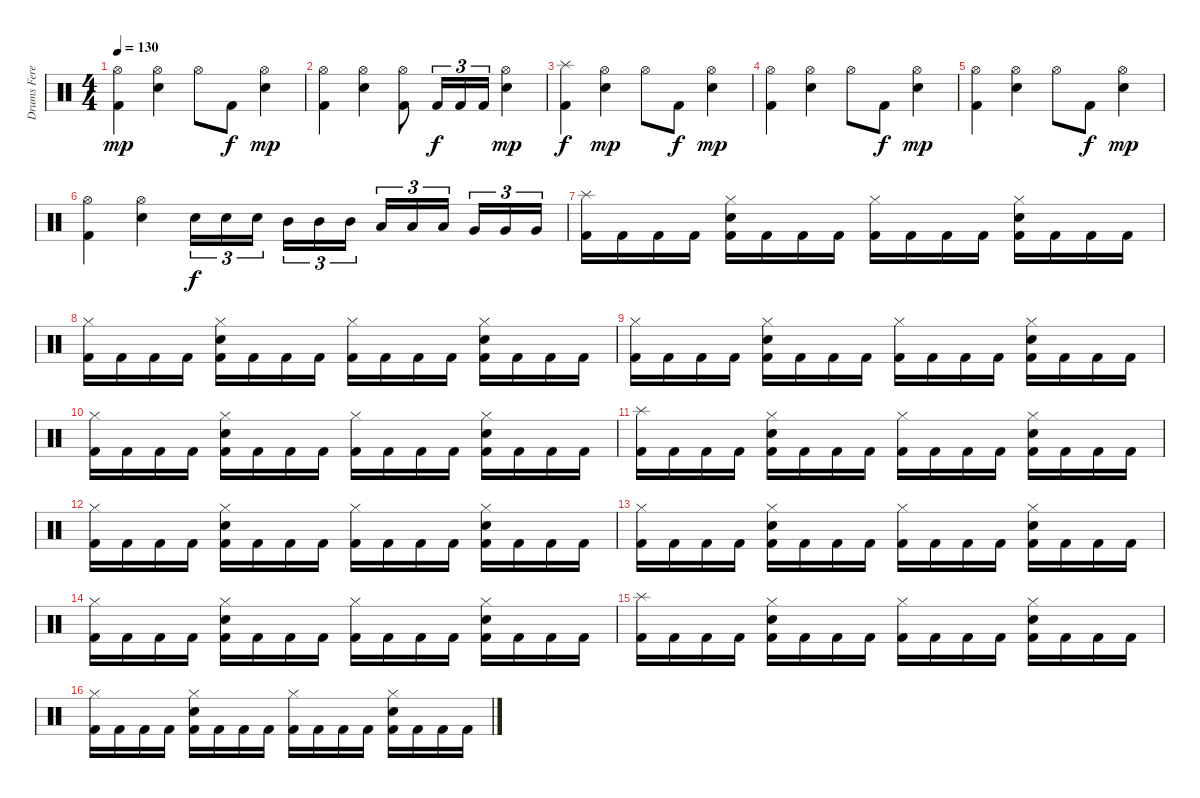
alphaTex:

\track ("Drums Feret" "Drums Fere") {instrument percussion}
\staff {score}
\articulation defaults
\ts (4 4)
\tempo 130
\clef neutral
\ks c
("Kick (hit) 2" "Hi-Hat (open)").4{dy mp} ("Electric Snare (hit)" "Hi-Hat (open)").4 "Hi-Hat (open)".8 "Kick (hit) 2".8{dy f} ("Electric Snare (hit)" "Hi-Hat (open)").4{dy mp} |
("Kick (hit) 2" "Hi-Hat (open)").4 ("Electric Snare (hit)" "Hi-Hat (open)").4 ("Kick (hit) 2" "Hi-Hat (open)").8 "Kick (hit) 2".16{tu (3 2) dy f} "Kick (hit) 2".16{tu (3 2)} "Kick (hit) 2".16{tu (3 2)} ("Electric Snare (hit)" "Hi-Hat (open)").4{dy mp} |
("Kick (hit) 2" "Splash (hit)").4{dy f} ("Electric Snare (hit)" "Hi-Hat (open)").4{dy mp} "Hi-Hat (open)".8 "Kick (hit) 2".8{dy f} ("Electric Snare (hit)" "Hi-Hat (open)").4{dy mp} |
("Kick (hit) 2" "Hi-Hat (open)").4 ("Electric Snare (hit)" "Hi-Hat (open)").4 "Hi-Hat (open)".8 "Kick (hit) 2".8{dy f} ("Electric Snare (hit)" "Hi-Hat (open)").4{dy mp} |
("Kick (hit) 2" "Hi-Hat (open)").4 ("Electric Snare (hit)" "Hi-Hat (open)").4 "Hi-Hat (open)".8 "Kick (hit) 2".8{dy f} ("Electric Snare (hit)" "Hi-Hat (open)").4{dy mp} |
("Kick (hit) 2" "Hi-Hat (open)").4 ("Electric Snare (hit)" "Hi-Hat (open)").4 "Electric Snare (hit)".16{tu (3 2) dy f} "Electric Snare (hit)".16{tu (3 2)} "Electric Snare (hit)".16{tu (3 2)} "Mid Tom (hit)".16{tu (3 2)} "Mid Tom (hit)".16{tu (3 2)} "Mid Tom (hit)".16{tu (3 2)} "Low Tom (hit)".16{tu (3 2)} "Low Tom (hit)".16{tu (3 2)} "Low Tom (hit)".16{tu (3 2)} "Very Low Tom (hit)".16{tu (3 2)} "Very Low Tom (hit)".16{tu (3 2)} "Very Low Tom (hit)".16{tu (3 2)} |
("Kick (hit) 2" "Splash (hit)").16 "Kick (hit) 2".16 "Kick (hit) 2".16 "Kick (hit) 2".16 ("Kick (hit) 2" "Electric Snare (hit)" "Hi-Hat (closed)").16 "Kick (hit) 2".16 "Kick (hit) 2".16 "Kick (hit) 2".16 ("Kick (hit) 2" "Hi-Hat (closed)").16 "Kick (hit) 2".16 "Kick (hit) 2".16 "Kick (hit) 2".16 ("Kick (hit) 2" "Electric Snare (hit)" "Hi-Hat (closed)").16 "Kick (hit) 2".16 "Kick (hit) 2".16 "Kick (hit) 2".16 |
("Kick (hit) 2" "Hi-Hat (closed)").16 "Kick (hit) 2".16 "Kick (hit) 2".16 "Kick (hit) 2".16 ("Kick (hit) 2" "Electric Snare (hit)" "Hi-Hat (closed)").16 "Kick (hit) 2".16 "Kick (hit) 2".16 "Kick (hit) 2".16 ("Kick (hit) 2" "Hi-Hat (closed)").16 "Kick (hit) 2".16 "Kick (hit) 2".16 "Kick (hit) 2".16 ("Kick (hit) 2" "Electric Snare (hit)" "Hi-Hat (closed)").16 "Kick (hit) 2".16 "Kick (hit) 2".16 "Kick (hit) 2".16 |
("Kick (hit) 2" "Hi-Hat (closed)").16 "Kick (hit) 2".16 "Kick (hit) 2".16 "Kick (hit) 2".16 ("Kick (hit) 2" "Electric Snare (hit)" "Hi-Hat (closed)").16 "Kick (hit) 2".16 "Kick (hit) 2".16 "Kick (hit) 2".16 ("Kick (hit) 2" "Hi-Hat (closed)").16 "Kick (hit) 2".16 "Kick (hit) 2".16 "Kick (hit) 2".16 ("Kick (hit) 2" "Electric Snare (hit)" "Hi-Hat (closed)").16 "Kick (hit) 2".16 "Kick (hit) 2".16 "Kick (hit) 2".16 |
("Kick (hit) 2" "Hi-Hat (closed)").16 "Kick (hit) 2".16 "Kick (hit) 2".16 "Kick (hit) 2".16 ("Kick (hit) 2" "Electric Snare (hit)" "Hi-Hat (closed)").16 "Kick (hit) 2".16 "Kick (hit) 2".16 "Kick (hit) 2".16 ("Kick (hit) 2" "Hi-Hat (closed)").16 "Kick (hit) 2".16 "Kick (hit) 2".16 "Kick (hit) 2".16 ("Kick (hit) 2" "Electric Snare (hit)" "Hi-Hat (closed)").16 "Kick (hit) 2".16 "Kick (hit) 2".16 "Kick (hit) 2".16 |
("Kick (hit) 2" "Splash (hit)").16 "Kick (hit) 2".16 "Kick (hit) 2".16 "Kick (hit) 2".16 ("Kick (hit) 2" "Electric Snare (hit)" "Hi-Hat (closed)").16 "Kick (hit) 2".16 "Kick (hit) 2".16 "Kick (hit) 2".16 ("Kick (hit) 2" "Hi-Hat (closed)").16 "Kick (hit) 2".16 "Kick (hit) 2".16 "Kick (hit) 2".16 ("Kick (hit) 2" "Electric Snare (hit)" "Hi-Hat (closed)").16 "Kick (hit) 2".16 "Kick (hit) 2".16 "Kick (hit) 2".16 |
("Kick (hit) 2" "Hi-Hat (closed)").16 "Kick (hit) 2".16 "Kick (hit) 2".16 "Kick (hit) 2".16 ("Kick (hit) 2" "Electric Snare (hit)" "Hi-Hat (closed)").16 "Kick (hit) 2".16 "Kick (hit) 2".16 "Kick (hit) 2".16 ("Kick (hit) 2" "Hi-Hat (closed)").16 "Kick (hit) 2".16 "Kick (hit) 2".16 "Kick (hit) 2".16 ("Kick (hit) 2" "Electric Snare (hit)" "Hi-Hat (closed)").16 "Kick (hit) 2".16 "Kick (hit) 2".16 "Kick (hit) 2".16 |
("Kick (hit) 2" "Hi-Hat (closed)").16 "Kick (hit) 2".16 "Kick (hit) 2".16 "Kick (hit) 2".16 ("Kick (hit) 2" "Electric Snare (hit)" "Hi-Hat (closed)").16 "Kick (hit) 2".16 "Kick (hit) 2".16 "Kick (hit) 2".16 ("Kick (hit) 2" "Hi-Hat (closed)").16 "Kick (hit) 2".16 "Kick (hit) 2".16 "Kick (hit) 2".16 ("Kick (hit) 2" "Electric Snare (hit)" "Hi-Hat (closed)").16 "Kick (hit) 2".16 "Kick (hit) 2".16 "Kick (hit) 2".16 |
("Kick (hit) 2" "Hi-Hat (closed)").16 "Kick (hit) 2".16 "Kick (hit) 2".16 "Kick (hit) 2".16 ("Kick (hit) 2" "Electric Snare (hit)" "Hi-Hat (closed)").16 "Kick (hit) 2".16 "Kick (hit) 2".16 "Kick (hit) 2".16 ("Kick (hit) 2" "Hi-Hat (closed)").16 "Kick (hit) 2".16 "Kick (hit) 2".16 "Kick (hit) 2".16 ("Kick (hit) 2" "Electric Snare (hit)" "Hi-Hat (closed)").16 "Kick (hit) 2".16 "Kick (hit) 2".16 "Kick (hit) 2".16 |
("Kick (hit) 2" "Splash (hit)").16 "Kick (hit) 2".16 "Kick (hit) 2".16 "Kick (hit) 2".16 ("Kick (hit) 2" "Electric Snare (hit)" "Hi-Hat (closed)").16 "Kick (hit) 2".16 "Kick (hit) 2".16 "Kick (hit) 2".16 ("Kick (hit) 2" "Hi-Hat (closed)").16 "Kick (hit) 2".16 "Kick (hit) 2".16 "Kick (hit) 2".16 ("Kick (hit) 2" "Electric Snare (hit)" "Hi-Hat (closed)").16 "Kick (hit) 2".16 "Kick (hit) 2".16 "Kick (hit) 2".16 |
("Kick (hit) 2" "Hi-Hat (closed)").16 "Kick (hit) 2".16 "Kick (hit) 2".16 "Kick (hit) 2".16 ("Kick (hit) 2" "Electric Snare (hit)" "Hi-Hat (closed)").16 "Kick (hit) 2".16 "Kick (hit) 2".16 "Kick (hit) 2".16 ("Kick (hit) 2" "Hi-Hat (closed)").16 "Kick (hit) 2".16 "Kick (hit) 2".16 "Kick (hit) 2".16 ("Kick (hit) 2" "Electric Snare (hit)" "Hi-Hat (closed)").16 "Kick (hit) 2".16 "Kick (hit) 2".16 "Kick (hit) 2".16
